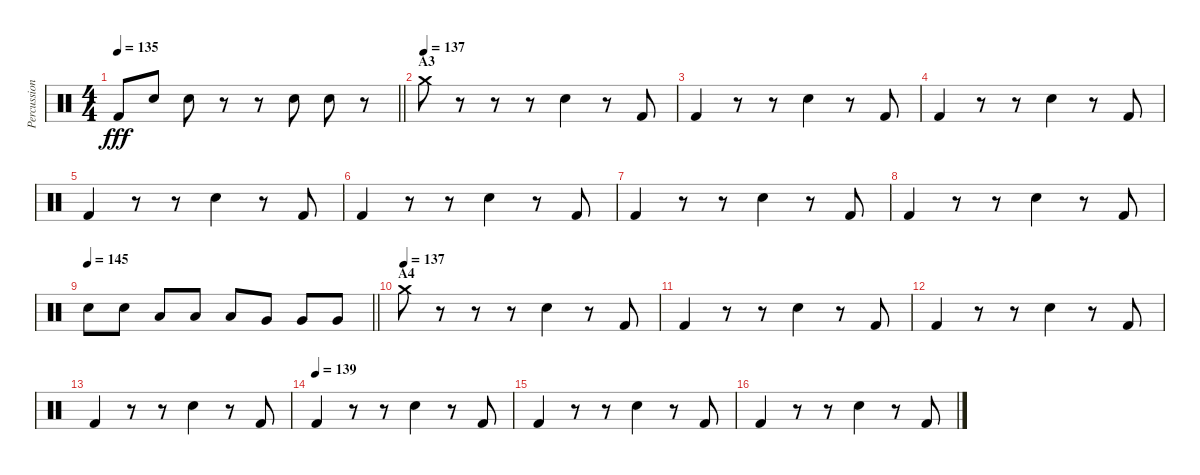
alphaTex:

\track ("Percussion" "Percussion") {instrument percussion}
\staff {score}
\articulation defaults
\ts (4 4)
\tempo 135
\clef neutral
\barLineRight lightlight
\ks c "Kick (hit) 2".8{dy fff} "Electric Snare (hit)".8 "Electric Snare (hit)".8
r.8 r.8 "Electric Snare (hit)".8 "Electric Snare (hit)".8 r.8 |
\section ("" "A3")
\tempo (137)
"Crash medium (hit)".8 r.8 r.8 r.8 "Electric Snare (hit)".4 r.8 "Kick (hit) 2".8 |
"Kick (hit) 2".4 r.8 r.8 "Electric Snare (hit)".4 r.8 "Kick (hit) 2".8 |
"Kick (hit) 2".4 r.8 r.8 "Electric Snare (hit)".4 r.8 "Kick (hit) 2".8 |
"Kick (hit) 2".4 r.8 r.8 "Electric Snare (hit)".4 r.8 "Kick (hit) 2".8 |
"Kick (hit) 2".4 r.8 r.8 "Electric Snare (hit)".4 r.8 "Kick (hit) 2".8 |
"Kick (hit) 2".4 r.8 r.8 "Electric Snare (hit)".4 r.8 "Kick (hit) 2".8 |
"Kick (hit) 2".4 r.8 r.8 "Electric Snare (hit)".4 r.8 "Kick (hit) 2".8 |
\tempo 145
\barLineRight lightlight "Electric Snare (hit)".8 "Electric Snare (hit)".8 "Low Floor Tom (hit)".8 "Low Floor Tom (hit)".8 "Low Floor Tom (hit)".8 "Very Low Tom (hit)".8 "Very Low Tom (hit)".8 "Very Low Tom (hit)".8
|
\section ("" "A4")
\tempo (137)
"Crash medium (hit)".8 r.8 r.8 r.8 "Electric Snare (hit)".4 r.8 "Kick (hit) 2".8 |
"Kick (hit) 2".4 r.8 r.8 "Electric Snare (hit)".4 r.8 "Kick (hit) 2".8 |
"Kick (hit) 2".4 r.8 r.8 "Electric Snare (hit)".4 r.8 "Kick (hit) 2".8 |
"Kick (hit) 2".4 r.8 r.8 "Electric Snare (hit)".4 r.8 "Kick (hit) 2".8 |
\tempo (139)
"Kick (hit) 2".4 r.8 r.8 "Electric Snare (hit)".4 r.8 "Kick (hit) 2".8 |
"Kick (hit) 2".4 r.8 r.8 "Electric Snare (hit)".4 r.8 "Kick (hit) 2".8 |
"Kick (hit) 2".4 r.8 r.8 "Electric Snare (hit)".4 r.8 "Kick (hit) 2".8
